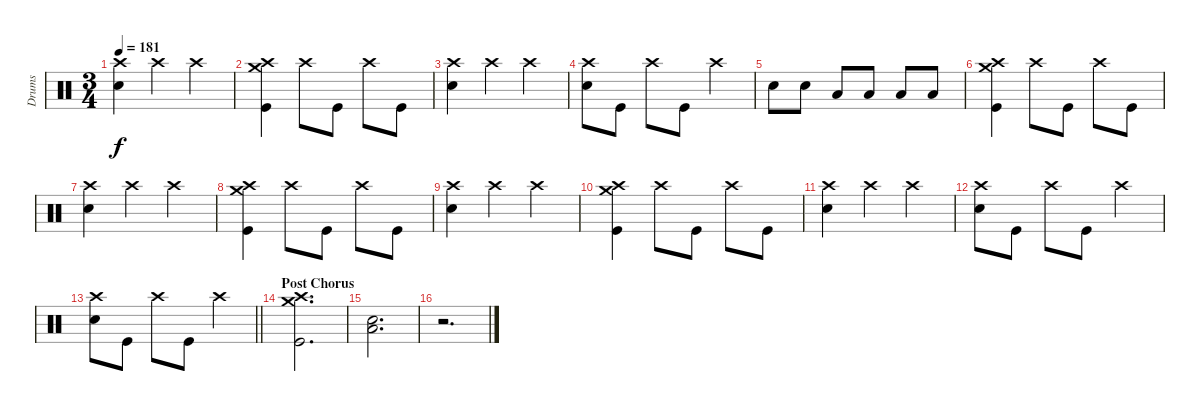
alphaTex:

\track ("Drums" "Drums") {instrument percussion}
\staff {score}
\articulation defaults
\ts (3 4)
\tempo 181
\clef neutral
\ks c
("Crash high (hit)" "Electric Snare (hit)").4{dy f} "Crash high (hit)".4 "Crash high (hit)".4 |
("Crash high (hit)" "Crash medium (hit)" "Kick (hit)").4 "Crash high (hit)".8 "Kick (hit)".8 "Crash high (hit)".8 "Kick (hit)".8 |
("Crash high (hit)" "Electric Snare (hit)").4 "Crash high (hit)".4 "Crash high (hit)".4 |
("Crash high (hit)" "Electric Snare (hit)").8 "Kick (hit)".8 "Crash high (hit)".8 "Kick (hit)".8 "Crash high (hit)".4 |
"Electric Snare (hit)".8 "Electric Snare (hit)".8 "Low Tom (hit)".8 "Low Tom (hit)".8 "Low Floor Tom (hit)".8 "Low Floor Tom (hit)".8 |
("Crash high (hit)" "Crash medium (hit)" "Kick (hit)").4 "Crash high (hit)".8 "Kick (hit)".8 "Crash high (hit)".8 "Kick (hit)".8 |
("Crash high (hit)" "Electric Snare (hit)").4 "Crash high (hit)".4 "Crash high (hit)".4 |
("Crash high (hit)" "Crash medium (hit)" "Kick (hit)").4 "Crash high (hit)".8 "Kick (hit)".8 "Crash high (hit)".8 "Kick (hit)".8 |
("Crash high (hit)" "Electric Snare (hit)").4 "Crash high (hit)".4 "Crash high (hit)".4 |
("Crash high (hit)" "Crash medium (hit)" "Kick (hit)").4 "Crash high (hit)".8 "Kick (hit)".8 "Crash high (hit)".8 "Kick (hit)".8 |
("Crash high (hit)" "Electric Snare (hit)").4 "Crash high (hit)".4 "Crash high (hit)".4 |
("Crash high (hit)" "Electric Snare (hit)").8 "Kick (hit)".8 "Crash high (hit)".8 "Kick (hit)".8 "Crash high (hit)".4 |
\barLineRight lightlight
("Crash high (hit)" "Electric Snare (hit)").8 "Kick (hit)".8 "Crash high (hit)".8 "Kick (hit)".8 "Crash high (hit)".4 |
\section ("" "Post Chorus")
("Crash high (hit)" "Crash medium (hit)" "Kick (hit)").2{d} |
("Electric Snare (hit)" "Low Floor Tom (hit)").2{d} |
r.2{d}
